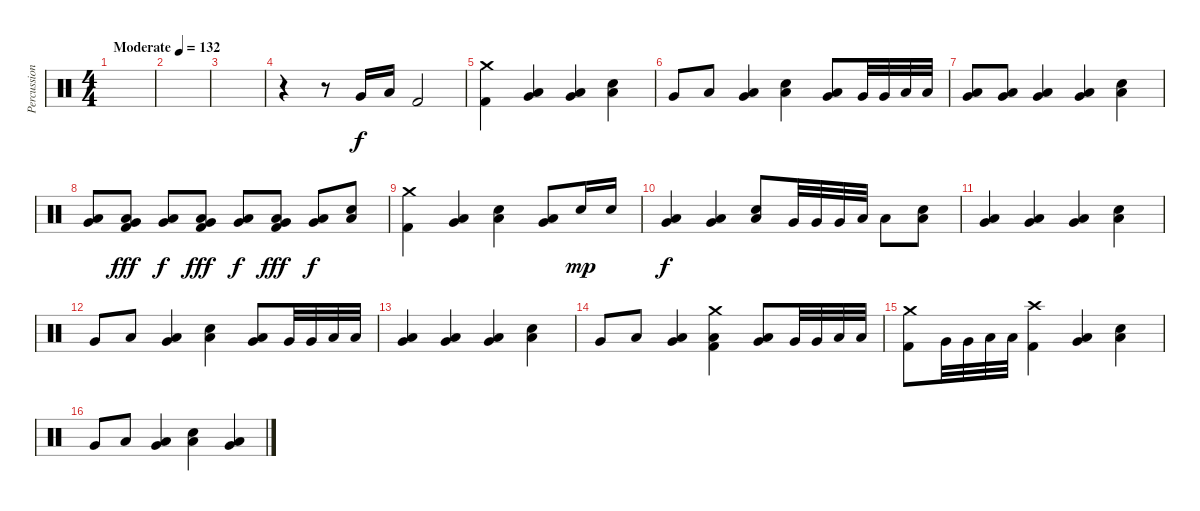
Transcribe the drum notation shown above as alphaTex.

\track ("Percussion" "Percussion") {instrument percussion}
\staff {score}
\articulation defaults
\ts (4 4)
\tempo (132 "Moderate")
\clef neutral
\ks c
|
|
|
r.4 r.8 "Very Low Tom (hit)".16 "Low Floor Tom (hit)".16 "Kick (hit) 2".2 |
("Crash medium (hit)" "Kick (hit) 2").4 ("Very Low Tom (hit)" "Low Floor Tom (hit)").4 ("Very Low Tom (hit)" "Low Floor Tom (hit)").4 ("Electric Snare (hit)" "Low Floor Tom (hit)").4 |
"Very Low Tom (hit)".8 "Low Floor Tom (hit)".8 ("Very Low Tom (hit)" "Low Floor Tom (hit)").4 ("Electric Snare (hit)" "Low Floor Tom (hit)").4 ("Very Low Tom (hit)" "Low Floor Tom (hit)").8 "Very Low Tom (hit)".32 "Very Low Tom (hit)".32 "Low Floor Tom (hit)".32 "Low Floor Tom (hit)".32 |
("Very Low Tom (hit)" "Low Floor Tom (hit)").8 ("Very Low Tom (hit)" "Low Floor Tom (hit)").8 ("Very Low Tom (hit)" "Low Floor Tom (hit)").4 ("Very Low Tom (hit)" "Low Floor Tom (hit)").4 ("Electric Snare (hit)" "Low Floor Tom (hit)").4 |
("Very Low Tom (hit)" "Low Floor Tom (hit)").8 ("Very Low Tom (hit)" "Low Floor Tom (hit)" "Kick (hit) 2").8{dy fff} ("Very Low Tom (hit)" "Low Floor Tom (hit)").8{dy f} ("Very Low Tom (hit)" "Low Floor Tom (hit)" "Kick (hit) 2").8{dy fff} ("Very Low Tom (hit)" "Low Floor Tom (hit)").8{dy f} ("Very Low Tom (hit)" "Low Floor Tom (hit)" "Kick (hit) 2").8{dy fff} ("Very Low Tom (hit)" "Low Floor Tom (hit)").8{dy f} ("Electric Snare (hit)" "Low Floor Tom (hit)").8 |
("Crash medium (hit)" "Kick (hit) 2").4 ("Very Low Tom (hit)" "Low Floor Tom (hit)").4 ("Electric Snare (hit)" "Low Floor Tom (hit)").4 ("Very Low Tom (hit)" "Low Floor Tom (hit)").8 "Electric Snare (hit)".16{dy mp} "Electric Snare (hit)".16 |
("Very Low Tom (hit)" "Low Floor Tom (hit)").4{dy f} ("Very Low Tom (hit)" "Low Floor Tom (hit)").4 ("Electric Snare (hit)" "Low Floor Tom (hit)").8 "Very Low Tom (hit)".32 "Very Low Tom (hit)".32 "Very Low Tom (hit)".32 "Low Floor Tom (hit)".32 "Low Floor Tom (hit)".8 ("Electric Snare (hit)" "Low Floor Tom (hit)").8 |
("Very Low Tom (hit)" "Low Floor Tom (hit)").4 ("Very Low Tom (hit)" "Low Floor Tom (hit)").4 ("Very Low Tom (hit)" "Low Floor Tom (hit)").4 ("Electric Snare (hit)" "Low Floor Tom (hit)").4 |
"Very Low Tom (hit)".8 "Low Floor Tom (hit)".8 ("Very Low Tom (hit)" "Low Floor Tom (hit)").4 ("Electric Snare (hit)" "Low Floor Tom (hit)").4 ("Very Low Tom (hit)" "Low Floor Tom (hit)").8 "Very Low Tom (hit)".32 "Very Low Tom (hit)".32 "Low Floor Tom (hit)".32 "Low Floor Tom (hit)".32 |
("Very Low Tom (hit)" "Low Floor Tom (hit)").4 ("Very Low Tom (hit)" "Low Floor Tom (hit)").4 ("Very Low Tom (hit)" "Low Floor Tom (hit)").4 ("Electric Snare (hit)" "Low Floor Tom (hit)").4 |
"Very Low Tom (hit)".8 "Low Floor Tom (hit)".8 ("Very Low Tom (hit)" "Low Floor Tom (hit)").4 ("Crash medium (hit)" "Low Floor Tom (hit)" "Kick (hit) 2").4 ("Very Low Tom (hit)" "Low Floor Tom (hit)").8 "Very Low Tom (hit)".32 "Very Low Tom (hit)".32 "Low Floor Tom (hit)".32 "Low Floor Tom (hit)".32 |
("Crash medium (hit)" "Kick (hit) 2").8 "Very Low Tom (hit)".32 "Very Low Tom (hit)".32 "Low Floor Tom (hit)".32 "Low Floor Tom (hit)".32 ("Crash high (hit)" "Kick (hit) 2").4 ("Very Low Tom (hit)" "Low Floor Tom (hit)").4 ("Electric Snare (hit)" "Low Floor Tom (hit)").4 |
"Very Low Tom (hit)".8 "Low Floor Tom (hit)".8 ("Very Low Tom (hit)" "Low Floor Tom (hit)").4 ("Electric Snare (hit)" "Low Floor Tom (hit)").4 ("Very Low Tom (hit)" "Low Floor Tom (hit)").4
